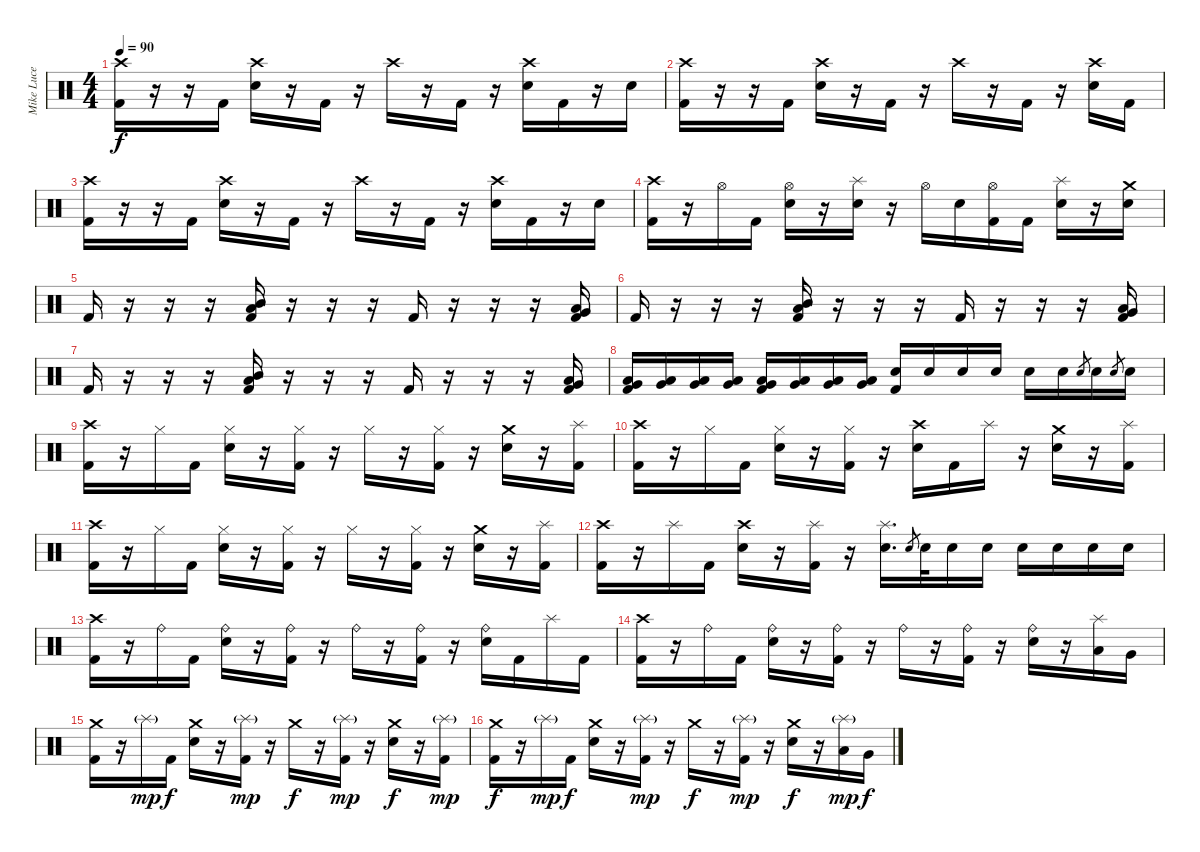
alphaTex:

\track ("Mike Luce" "Mike Luce") {instrument percussion}
\staff {score}
\articulation defaults
\ts (4 4)
\tempo 90
\clef neutral
\ks c
("Crash high (hit)" "Kick (hit) 2").16{dy f} r.16 r.16 "Kick (hit) 2".16 ("Crash high (hit)" "Electric Snare (hit)").16 r.16 "Kick (hit) 2".16 r.16 "Crash high (hit)".16 r.16 "Kick (hit) 2".16 r.16 ("Crash high (hit)" "Electric Snare (hit)").16 "Kick (hit) 2".16 r.16 "Electric Snare (hit)".16 |
("Crash high (hit)" "Kick (hit) 2").16 r.16 r.16 "Kick (hit) 2".16 ("Crash high (hit)" "Electric Snare (hit)").16 r.16 "Kick (hit) 2".16 r.16 "Crash high (hit)".16 r.16 "Kick (hit) 2".16 r.16 ("Crash high (hit)" "Electric Snare (hit)").16 "Kick (hit) 2".16 |
("Crash high (hit)" "Kick (hit) 2").16 r.16 r.16 "Kick (hit) 2".16 ("Crash high (hit)" "Electric Snare (hit)").16 r.16 "Kick (hit) 2".16 r.16 "Crash high (hit)".16 r.16 "Kick (hit) 2".16 r.16 ("Crash high (hit)" "Electric Snare (hit)").16 "Kick (hit) 2".16 r.16 "Electric Snare (hit)".16 |
("Crash high (hit)" "Kick (hit) 2").16 r.16 "Hi-Hat (open)".16 "Kick (hit) 2".16 ("Hi-Hat (open)" "Electric Snare (hit)").16 r.16 ("Splash (hit)" "Electric Snare (hit)").16 r.16 "Hi-Hat (open)".16 "Electric Snare (hit)".16 ("Hi-Hat (open)" "Kick (hit) 2").16 "Kick (hit) 2".16 ("Splash (hit)" "Electric Snare (hit)").16 r.16 ("Crash medium (hit)" "Electric Snare (hit)").16 |
"Kick (hit) 2".16 r.16 r.16 r.16 ("Mid Tom (hit)" "Low Tom (hit)" "Kick (hit) 2").16 r.16 r.16 r.16 "Kick (hit) 2".16 r.16 r.16 r.16 ("Low Tom (hit)" "Very Low Tom (hit)" "Kick (hit) 2").16 |
"Kick (hit) 2".16 r.16 r.16 r.16 ("Mid Tom (hit)" "Low Tom (hit)" "Kick (hit) 2").16 r.16 r.16 r.16 "Kick (hit) 2".16 r.16 r.16 r.16 ("Low Tom (hit)" "Very Low Tom (hit)" "Kick (hit) 2").16 |
"Kick (hit) 2".16 r.16 r.16 r.16 ("Mid Tom (hit)" "Low Tom (hit)" "Kick (hit) 2").16 r.16 r.16 r.16 "Kick (hit) 2".16 r.16 r.16 r.16 ("Low Tom (hit)" "Very Low Tom (hit)" "Kick (hit) 2").16 |
("Low Tom (hit)" "Very Low Tom (hit)" "Kick (hit) 2").16 ("Low Tom (hit)" "Very Low Tom (hit)").16 ("Low Tom (hit)" "Very Low Tom (hit)").16 ("Low Tom (hit)" "Very Low Tom (hit)").16 ("Low Tom (hit)" "Very Low Tom (hit)" "Kick (hit) 2").16 ("Low Tom (hit)" "Very Low Tom (hit)").16 ("Low Tom (hit)" "Very Low Tom (hit)").16 ("Low Tom (hit)" "Very Low Tom (hit)").16 ("Electric Snare (hit)" "Kick (hit) 2").16 "Electric Snare (hit)".16 "Electric Snare (hit)".16 "Electric Snare (hit)".16 "Electric Snare (hit)".16 "Electric Snare (hit)".16 "Electric Snare (hit)".8{gr} "Electric Snare (hit)".16 "Electric Snare (hit)".8{gr} "Electric Snare (hit)".16 |
("Crash high (hit)" "Kick (hit) 2").16 r.16 "Hi-Hat (closed)".16 "Kick (hit) 2".16 ("Hi-Hat (closed)" "Electric Snare (hit)").16 r.16 ("Hi-Hat (closed)" "Kick (hit) 2").16 r.16 "Hi-Hat (closed)".16 r.16 ("Hi-Hat (closed)" "Kick (hit) 2").16 r.16 ("Crash medium (hit)" "Electric Snare (hit)").16 r.16 ("Splash (hit)" "Kick (hit) 2").16 |
("Crash high (hit)" "Kick (hit) 2").16 r.16 "Hi-Hat (closed)".16 "Kick (hit) 2".16 ("Hi-Hat (closed)" "Electric Snare (hit)").16 r.16 ("Hi-Hat (closed)" "Kick (hit) 2").16 r.16 ("Crash high (hit)" "Electric Snare (hit)").16 "Kick (hit) 2".16 "Splash (hit)".16 r.16 ("Crash medium (hit)" "Electric Snare (hit)").16 r.16 ("Splash (hit)" "Kick (hit) 2").16 |
("Crash high (hit)" "Kick (hit) 2").16 r.16 "Hi-Hat (closed)".16 "Kick (hit) 2".16 ("Hi-Hat (closed)" "Electric Snare (hit)").16 r.16 ("Hi-Hat (closed)" "Kick (hit) 2").16 r.16 "Hi-Hat (closed)".16 r.16 ("Hi-Hat (closed)" "Kick (hit) 2").16 r.16 ("Crash medium (hit)" "Electric Snare (hit)").16 r.16 ("Splash (hit)" "Kick (hit) 2").16 |
("Crash high (hit)" "Kick (hit) 2").16 r.16 "Splash (hit)".16 "Kick (hit) 2".16 ("Crash high (hit)" "Electric Snare (hit)").16 r.16 ("Splash (hit)" "Kick (hit) 2").16 r.16 ("Splash (hit)" "Electric Snare (hit)").16{d} "Electric Snare (hit)".8{gr} "Electric Snare (hit)".32 "Electric Snare (hit)".16 "Electric Snare (hit)".16 "Electric Snare (hit)".16 "Electric Snare (hit)".16 "Electric Snare (hit)".16 "Electric Snare (hit)".16 |
("Crash high (hit)" "Kick (hit) 2").16 r.16 "Ride (bell)".16 "Kick (hit) 2".16 ("Ride (bell)" "Electric Snare (hit)").16 r.16 ("Ride (bell)" "Kick (hit) 2").16 r.16 "Ride (bell)".16 r.16 ("Ride (bell)" "Kick (hit) 2").16 r.16 ("Ride (bell)" "Electric Snare (hit)").16 "Kick (hit) 2".16 "Splash (hit)".16 "Kick (hit) 2".16 |
("Crash high (hit)" "Kick (hit) 2").16 r.16 "Ride (bell)".16 "Kick (hit) 2".16 ("Ride (bell)" "Electric Snare (hit)").16 r.16 ("Ride (bell)" "Kick (hit) 2").16 r.16 "Ride (bell)".16 r.16 ("Ride (bell)" "Kick (hit) 2").16 r.16 ("Ride (bell)" "Electric Snare (hit)").16 r.16 ("Splash (hit)" "Low Tom (hit)").16 "Very Low Tom (hit)".16 |
("Crash medium (hit)" "Kick (hit) 2").16 r.16 "Splash (hit)"{g}.16{dy mp} "Kick (hit) 2".16{dy f} ("Crash medium (hit)" "Electric Snare (hit)").16 r.16 ("Splash (hit)"{g} "Kick (hit) 2").16{dy mp} r.16 "Crash medium (hit)".16{dy f} r.16 ("Splash (hit)"{g} "Kick (hit) 2").16{dy mp} r.16 ("Crash medium (hit)" "Electric Snare (hit)").16{dy f} r.16 ("Splash (hit)"{g} "Kick (hit) 2").16{dy mp} |
("Crash medium (hit)" "Kick (hit) 2").16{dy f} r.16 "Splash (hit)"{g}.16{dy mp} "Kick (hit) 2".16{dy f} ("Crash medium (hit)" "Electric Snare (hit)").16 r.16 ("Splash (hit)"{g} "Kick (hit) 2").16{dy mp} r.16 "Crash medium (hit)".16{dy f} r.16 ("Splash (hit)"{g} "Kick (hit) 2").16{dy mp} r.16 ("Crash medium (hit)" "Electric Snare (hit)").16{dy f} r.16 ("Splash (hit)"{g} "Low Tom (hit)").16{dy mp} "Very Low Tom (hit)".16{dy f}
